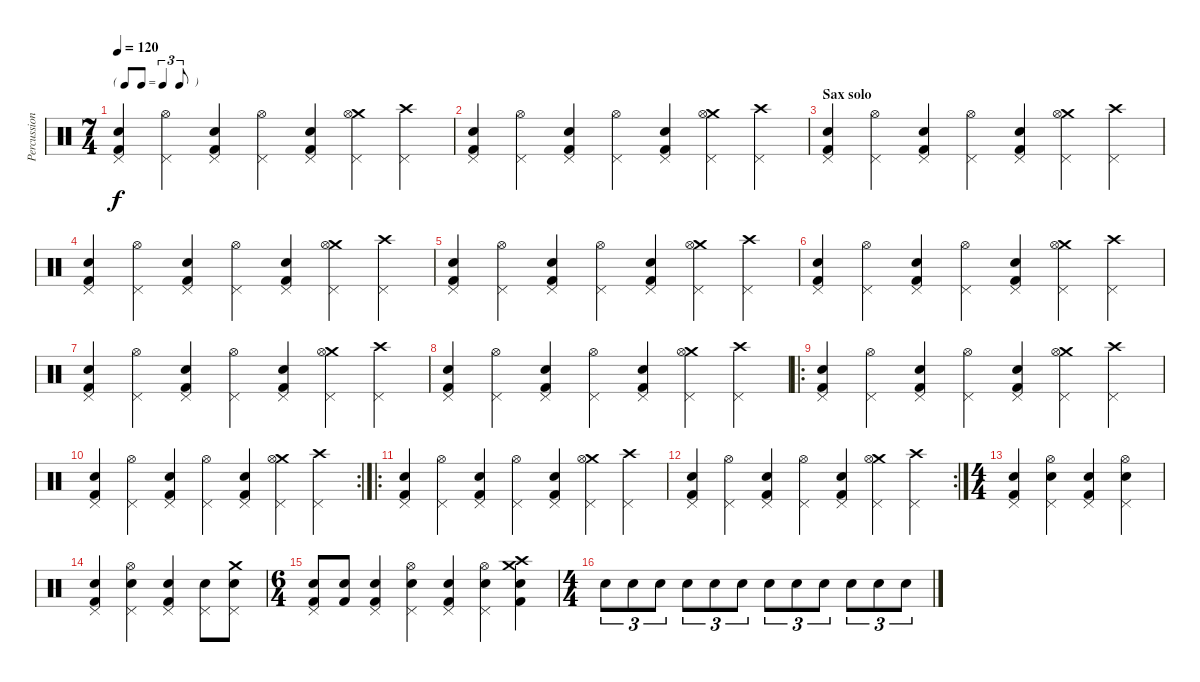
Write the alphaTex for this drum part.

\track ("Percussions" "Percussion") {instrument percussion}
\staff {score}
\articulation defaults
\ts (7 4)
\tf triplet8th
\tempo 120
\clef neutral
\ks c
("Kick (hit) 2" "Snare (hit) 2" "Pedal Hi-Hat (hit)").4{dy f} ("Hi-Hat (open)" "Pedal Hi-Hat (hit)").4 ("Kick (hit) 2" "Snare (hit) 2" "Pedal Hi-Hat (hit)").4 ("Hi-Hat (open)" "Pedal Hi-Hat (hit)").4 ("Kick (hit) 2" "Snare (hit) 2" "Pedal Hi-Hat (hit)").4 ("Crash medium (hit)" "Hi-Hat (open)" "Pedal Hi-Hat (hit)").4 ("Crash high (hit)" "Pedal Hi-Hat (hit)").4 |
("Kick (hit) 2" "Snare (hit) 2" "Pedal Hi-Hat (hit)").4 ("Hi-Hat (open)" "Pedal Hi-Hat (hit)").4 ("Kick (hit) 2" "Snare (hit) 2" "Pedal Hi-Hat (hit)").4 ("Hi-Hat (open)" "Pedal Hi-Hat (hit)").4 ("Kick (hit) 2" "Snare (hit) 2" "Pedal Hi-Hat (hit)").4 ("Crash medium (hit)" "Hi-Hat (open)" "Pedal Hi-Hat (hit)").4 ("Crash high (hit)" "Pedal Hi-Hat (hit)").4 |
\section ("" "Sax solo")
("Kick (hit) 2" "Snare (hit) 2" "Pedal Hi-Hat (hit)").4 ("Hi-Hat (open)" "Pedal Hi-Hat (hit)").4 ("Kick (hit) 2" "Snare (hit) 2" "Pedal Hi-Hat (hit)").4 ("Hi-Hat (open)" "Pedal Hi-Hat (hit)").4 ("Kick (hit) 2" "Snare (hit) 2" "Pedal Hi-Hat (hit)").4 ("Crash medium (hit)" "Hi-Hat (open)" "Pedal Hi-Hat (hit)").4 ("Crash high (hit)" "Pedal Hi-Hat (hit)").4 |
("Kick (hit) 2" "Snare (hit) 2" "Pedal Hi-Hat (hit)").4 ("Hi-Hat (open)" "Pedal Hi-Hat (hit)").4 ("Kick (hit) 2" "Snare (hit) 2" "Pedal Hi-Hat (hit)").4 ("Hi-Hat (open)" "Pedal Hi-Hat (hit)").4 ("Kick (hit) 2" "Snare (hit) 2" "Pedal Hi-Hat (hit)").4 ("Crash medium (hit)" "Hi-Hat (open)" "Pedal Hi-Hat (hit)").4 ("Crash high (hit)" "Pedal Hi-Hat (hit)").4 |
("Kick (hit) 2" "Snare (hit) 2" "Pedal Hi-Hat (hit)").4 ("Hi-Hat (open)" "Pedal Hi-Hat (hit)").4 ("Kick (hit) 2" "Snare (hit) 2" "Pedal Hi-Hat (hit)").4 ("Hi-Hat (open)" "Pedal Hi-Hat (hit)").4 ("Kick (hit) 2" "Snare (hit) 2" "Pedal Hi-Hat (hit)").4 ("Crash medium (hit)" "Hi-Hat (open)" "Pedal Hi-Hat (hit)").4 ("Crash high (hit)" "Pedal Hi-Hat (hit)").4 |
("Kick (hit) 2" "Snare (hit) 2" "Pedal Hi-Hat (hit)").4 ("Hi-Hat (open)" "Pedal Hi-Hat (hit)").4 ("Kick (hit) 2" "Snare (hit) 2" "Pedal Hi-Hat (hit)").4 ("Hi-Hat (open)" "Pedal Hi-Hat (hit)").4 ("Kick (hit) 2" "Snare (hit) 2" "Pedal Hi-Hat (hit)").4 ("Crash medium (hit)" "Hi-Hat (open)" "Pedal Hi-Hat (hit)").4 ("Crash high (hit)" "Pedal Hi-Hat (hit)").4 |
("Kick (hit) 2" "Snare (hit) 2" "Pedal Hi-Hat (hit)").4 ("Hi-Hat (open)" "Pedal Hi-Hat (hit)").4 ("Kick (hit) 2" "Snare (hit) 2" "Pedal Hi-Hat (hit)").4 ("Hi-Hat (open)" "Pedal Hi-Hat (hit)").4 ("Kick (hit) 2" "Snare (hit) 2" "Pedal Hi-Hat (hit)").4 ("Crash medium (hit)" "Hi-Hat (open)" "Pedal Hi-Hat (hit)").4 ("Crash high (hit)" "Pedal Hi-Hat (hit)").4 |
("Kick (hit) 2" "Snare (hit) 2" "Pedal Hi-Hat (hit)").4 ("Hi-Hat (open)" "Pedal Hi-Hat (hit)").4 ("Kick (hit) 2" "Snare (hit) 2" "Pedal Hi-Hat (hit)").4 ("Hi-Hat (open)" "Pedal Hi-Hat (hit)").4 ("Kick (hit) 2" "Snare (hit) 2" "Pedal Hi-Hat (hit)").4 ("Crash medium (hit)" "Hi-Hat (open)" "Pedal Hi-Hat (hit)").4 ("Crash high (hit)" "Pedal Hi-Hat (hit)").4 |
\ro
("Kick (hit) 2" "Snare (hit) 2" "Pedal Hi-Hat (hit)").4 ("Hi-Hat (open)" "Pedal Hi-Hat (hit)").4 ("Kick (hit) 2" "Snare (hit) 2" "Pedal Hi-Hat (hit)").4 ("Hi-Hat (open)" "Pedal Hi-Hat (hit)").4 ("Kick (hit) 2" "Snare (hit) 2" "Pedal Hi-Hat (hit)").4 ("Crash medium (hit)" "Hi-Hat (open)" "Pedal Hi-Hat (hit)").4 ("Crash high (hit)" "Pedal Hi-Hat (hit)").4 |
\rc 2
("Kick (hit) 2" "Snare (hit) 2" "Pedal Hi-Hat (hit)").4 ("Hi-Hat (open)" "Pedal Hi-Hat (hit)").4 ("Kick (hit) 2" "Snare (hit) 2" "Pedal Hi-Hat (hit)").4 ("Hi-Hat (open)" "Pedal Hi-Hat (hit)").4 ("Kick (hit) 2" "Snare (hit) 2" "Pedal Hi-Hat (hit)").4 ("Crash medium (hit)" "Hi-Hat (open)" "Pedal Hi-Hat (hit)").4 ("Crash high (hit)" "Pedal Hi-Hat (hit)").4 |
\ro
("Kick (hit) 2" "Snare (hit) 2" "Pedal Hi-Hat (hit)").4 ("Hi-Hat (open)" "Pedal Hi-Hat (hit)").4 ("Kick (hit) 2" "Snare (hit) 2" "Pedal Hi-Hat (hit)").4 ("Hi-Hat (open)" "Pedal Hi-Hat (hit)").4 ("Kick (hit) 2" "Snare (hit) 2" "Pedal Hi-Hat (hit)").4 ("Crash medium (hit)" "Hi-Hat (open)" "Pedal Hi-Hat (hit)").4 ("Crash high (hit)" "Pedal Hi-Hat (hit)").4 |
\rc 2
("Kick (hit) 2" "Snare (hit) 2" "Pedal Hi-Hat (hit)").4 ("Hi-Hat (open)" "Pedal Hi-Hat (hit)").4 ("Kick (hit) 2" "Snare (hit) 2" "Pedal Hi-Hat (hit)").4 ("Hi-Hat (open)" "Pedal Hi-Hat (hit)").4 ("Kick (hit) 2" "Snare (hit) 2" "Pedal Hi-Hat (hit)").4 ("Crash medium (hit)" "Hi-Hat (open)" "Pedal Hi-Hat (hit)").4 ("Crash high (hit)" "Pedal Hi-Hat (hit)").4 |
\ts (4 4)
("Kick (hit) 2" "Snare (hit) 2" "Pedal Hi-Hat (hit)").4 ("Hi-Hat (open)" "Snare (hit) 2" "Pedal Hi-Hat (hit)").4 ("Kick (hit) 2" "Snare (hit) 2" "Pedal Hi-Hat (hit)").4 ("Hi-Hat (open)" "Snare (hit) 2" "Pedal Hi-Hat (hit)").4 |
("Kick (hit) 2" "Snare (hit) 2" "Pedal Hi-Hat (hit)").4 ("Hi-Hat (open)" "Snare (hit) 2" "Pedal Hi-Hat (hit)").4 ("Kick (hit) 2" "Snare (hit) 2" "Pedal Hi-Hat (hit)").4 ("Snare (hit) 2" "Pedal Hi-Hat (hit)").8 ("Crash medium (hit)" "Snare (hit) 2" "Pedal Hi-Hat (hit)").8 |
\ts (6 4)
("Kick (hit) 2" "Snare (hit) 2" "Pedal Hi-Hat (hit)").8 ("Snare (hit) 2" "Kick (hit) 2").8 ("Kick (hit) 2" "Snare (hit) 2" "Pedal Hi-Hat (hit)").4 ("Hi-Hat (open)" "Snare (hit) 2" "Pedal Hi-Hat (hit)").4 ("Kick (hit) 2" "Snare (hit) 2" "Pedal Hi-Hat (hit)").4 ("Hi-Hat (open)" "Snare (hit) 2" "Pedal Hi-Hat (hit)").4 ("Kick (hit) 2" "Crash high (hit)" "Crash medium (hit)" "Snare (hit) 2").4 |
\ts (4 4)
"Electric Snare (hit)".8{tu (3 2)} "Electric Snare (hit)".8{tu (3 2)} "Electric Snare (hit)".8{tu (3 2)} "Electric Snare (hit)".8{tu (3 2)} "Electric Snare (hit)".8{tu (3 2)} "Electric Snare (hit)".8{tu (3 2)} "Electric Snare (hit)".8{tu (3 2)} "Electric Snare (hit)".8{tu (3 2)} "Electric Snare (hit)".8{tu (3 2)} "Electric Snare (hit)".8{tu (3 2)} "Electric Snare (hit)".8{tu (3 2)} "Electric Snare (hit)".8{tu (3 2)}
